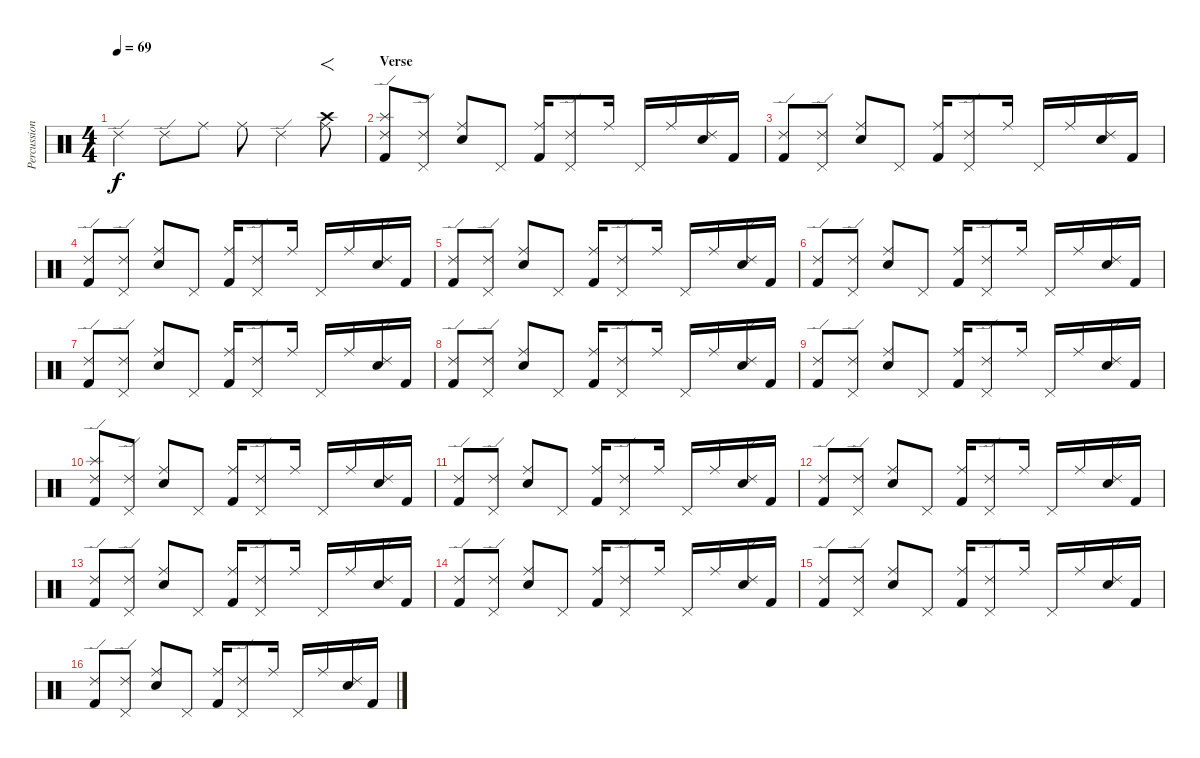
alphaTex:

\track ("Percussion" "Percussion") {instrument percussion}
\staff {score}
\articulation defaults
\ts (4 4)
\tempo 69
\clef neutral
\ks c "Ride (edge) 2".4{dy f} "Ride (edge) 2".8 "Ride (middle)".8 "Ride (middle)".8 "Ride (edge) 2".4
("Ride (middle)" "Crash high (hit)").8{f} |
\section ("" "Verse")
("Ride (edge) 2" "Splash (hit)" "Kick (hit) 2").8 ("Ride (edge) 2" "Pedal Hi-Hat (hit)").8 ("Ride (middle)" "Electric Snare (hit)").8 "Pedal Hi-Hat (hit)".8 ("Ride (middle)" "Kick (hit) 2").16 ("Ride (edge) 2" "Pedal Hi-Hat (hit)").8 "Ride (middle)".16 "Pedal Hi-Hat (hit)".16 "Ride (middle)".16 ("Ride (edge) 2" "Electric Snare (hit)").16 "Kick (hit) 2".16 |
("Ride (edge) 2" "Kick (hit) 2").8 ("Ride (edge) 2" "Pedal Hi-Hat (hit)").8 ("Ride (middle)" "Electric Snare (hit)").8 "Pedal Hi-Hat (hit)".8 ("Ride (middle)" "Kick (hit) 2").16 ("Ride (edge) 2" "Pedal Hi-Hat (hit)").8 "Ride (middle)".16 "Pedal Hi-Hat (hit)".16 "Ride (middle)".16 ("Ride (edge) 2" "Electric Snare (hit)").16 "Kick (hit) 2".16 |
("Ride (edge) 2" "Kick (hit) 2").8 ("Ride (edge) 2" "Pedal Hi-Hat (hit)").8 ("Ride (middle)" "Electric Snare (hit)").8 "Pedal Hi-Hat (hit)".8 ("Ride (middle)" "Kick (hit) 2").16 ("Ride (edge) 2" "Pedal Hi-Hat (hit)").8 "Ride (middle)".16 "Pedal Hi-Hat (hit)".16 "Ride (middle)".16 ("Ride (edge) 2" "Electric Snare (hit)").16 "Kick (hit) 2".16 |
("Ride (edge) 2" "Kick (hit) 2").8 ("Ride (edge) 2" "Pedal Hi-Hat (hit)").8 ("Ride (middle)" "Electric Snare (hit)").8 "Pedal Hi-Hat (hit)".8 ("Ride (middle)" "Kick (hit) 2").16 ("Ride (edge) 2" "Pedal Hi-Hat (hit)").8 "Ride (middle)".16 "Pedal Hi-Hat (hit)".16 "Ride (middle)".16 ("Ride (edge) 2" "Electric Snare (hit)").16 "Kick (hit) 2".16 |
("Ride (edge) 2" "Kick (hit) 2").8 ("Ride (edge) 2" "Pedal Hi-Hat (hit)").8 ("Ride (middle)" "Electric Snare (hit)").8 "Pedal Hi-Hat (hit)".8 ("Ride (middle)" "Kick (hit) 2").16 ("Ride (edge) 2" "Pedal Hi-Hat (hit)").8 "Ride (middle)".16 "Pedal Hi-Hat (hit)".16 "Ride (middle)".16 ("Ride (edge) 2" "Electric Snare (hit)").16 "Kick (hit) 2".16 |
("Ride (edge) 2" "Kick (hit) 2").8 ("Ride (edge) 2" "Pedal Hi-Hat (hit)").8 ("Ride (middle)" "Electric Snare (hit)").8 "Pedal Hi-Hat (hit)".8 ("Ride (middle)" "Kick (hit) 2").16 ("Ride (edge) 2" "Pedal Hi-Hat (hit)").8 "Ride (middle)".16 "Pedal Hi-Hat (hit)".16 "Ride (middle)".16 ("Ride (edge) 2" "Electric Snare (hit)").16 "Kick (hit) 2".16 |
("Ride (edge) 2" "Kick (hit) 2").8 ("Ride (edge) 2" "Pedal Hi-Hat (hit)").8 ("Ride (middle)" "Electric Snare (hit)").8 "Pedal Hi-Hat (hit)".8 ("Ride (middle)" "Kick (hit) 2").16 ("Ride (edge) 2" "Pedal Hi-Hat (hit)").8 "Ride (middle)".16 "Pedal Hi-Hat (hit)".16 "Ride (middle)".16 ("Ride (edge) 2" "Electric Snare (hit)").16 "Kick (hit) 2".16 |
("Ride (edge) 2" "Kick (hit) 2").8 ("Ride (edge) 2" "Pedal Hi-Hat (hit)").8 ("Ride (middle)" "Electric Snare (hit)").8 "Pedal Hi-Hat (hit)".8 ("Ride (middle)" "Kick (hit) 2").16 ("Ride (edge) 2" "Pedal Hi-Hat (hit)").8 "Ride (middle)".16 "Pedal Hi-Hat (hit)".16 "Ride (middle)".16 ("Ride (edge) 2" "Electric Snare (hit)").16 "Kick (hit) 2".16 |
("Ride (edge) 2" "Splash (hit)" "Kick (hit) 2").8 ("Ride (edge) 2" "Pedal Hi-Hat (hit)").8 ("Ride (middle)" "Electric Snare (hit)").8 "Pedal Hi-Hat (hit)".8 ("Ride (middle)" "Kick (hit) 2").16 ("Ride (edge) 2" "Pedal Hi-Hat (hit)").8 "Ride (middle)".16 "Pedal Hi-Hat (hit)".16 "Ride (middle)".16 ("Ride (edge) 2" "Electric Snare (hit)").16 "Kick (hit) 2".16 |
("Ride (edge) 2" "Kick (hit) 2").8 ("Ride (edge) 2" "Pedal Hi-Hat (hit)").8 ("Ride (middle)" "Electric Snare (hit)").8 "Pedal Hi-Hat (hit)".8 ("Ride (middle)" "Kick (hit) 2").16 ("Ride (edge) 2" "Pedal Hi-Hat (hit)").8 "Ride (middle)".16 "Pedal Hi-Hat (hit)".16 "Ride (middle)".16 ("Ride (edge) 2" "Electric Snare (hit)").16 "Kick (hit) 2".16 |
("Ride (edge) 2" "Kick (hit) 2").8 ("Ride (edge) 2" "Pedal Hi-Hat (hit)").8 ("Ride (middle)" "Electric Snare (hit)").8 "Pedal Hi-Hat (hit)".8 ("Ride (middle)" "Kick (hit) 2").16 ("Ride (edge) 2" "Pedal Hi-Hat (hit)").8 "Ride (middle)".16 "Pedal Hi-Hat (hit)".16 "Ride (middle)".16 ("Ride (edge) 2" "Electric Snare (hit)").16 "Kick (hit) 2".16 |
("Ride (edge) 2" "Kick (hit) 2").8 ("Ride (edge) 2" "Pedal Hi-Hat (hit)").8 ("Ride (middle)" "Electric Snare (hit)").8 "Pedal Hi-Hat (hit)".8 ("Ride (middle)" "Kick (hit) 2").16 ("Ride (edge) 2" "Pedal Hi-Hat (hit)").8 "Ride (middle)".16 "Pedal Hi-Hat (hit)".16 "Ride (middle)".16 ("Ride (edge) 2" "Electric Snare (hit)").16 "Kick (hit) 2".16 |
("Ride (edge) 2" "Kick (hit) 2").8 ("Ride (edge) 2" "Pedal Hi-Hat (hit)").8 ("Ride (middle)" "Electric Snare (hit)").8 "Pedal Hi-Hat (hit)".8 ("Ride (middle)" "Kick (hit) 2").16 ("Ride (edge) 2" "Pedal Hi-Hat (hit)").8 "Ride (middle)".16 "Pedal Hi-Hat (hit)".16 "Ride (middle)".16 ("Ride (edge) 2" "Electric Snare (hit)").16 "Kick (hit) 2".16 |
("Ride (edge) 2" "Kick (hit) 2").8 ("Ride (edge) 2" "Pedal Hi-Hat (hit)").8 ("Ride (middle)" "Electric Snare (hit)").8 "Pedal Hi-Hat (hit)".8 ("Ride (middle)" "Kick (hit) 2").16 ("Ride (edge) 2" "Pedal Hi-Hat (hit)").8 "Ride (middle)".16 "Pedal Hi-Hat (hit)".16 "Ride (middle)".16 ("Ride (edge) 2" "Electric Snare (hit)").16 "Kick (hit) 2".16 |
("Ride (edge) 2" "Kick (hit) 2").8 ("Ride (edge) 2" "Pedal Hi-Hat (hit)").8 ("Ride (middle)" "Electric Snare (hit)").8 "Pedal Hi-Hat (hit)".8 ("Ride (middle)" "Kick (hit) 2").16 ("Ride (edge) 2" "Pedal Hi-Hat (hit)").8 "Ride (middle)".16 "Pedal Hi-Hat (hit)".16 "Ride (middle)".16 ("Ride (edge) 2" "Electric Snare (hit)").16 "Kick (hit) 2".16
